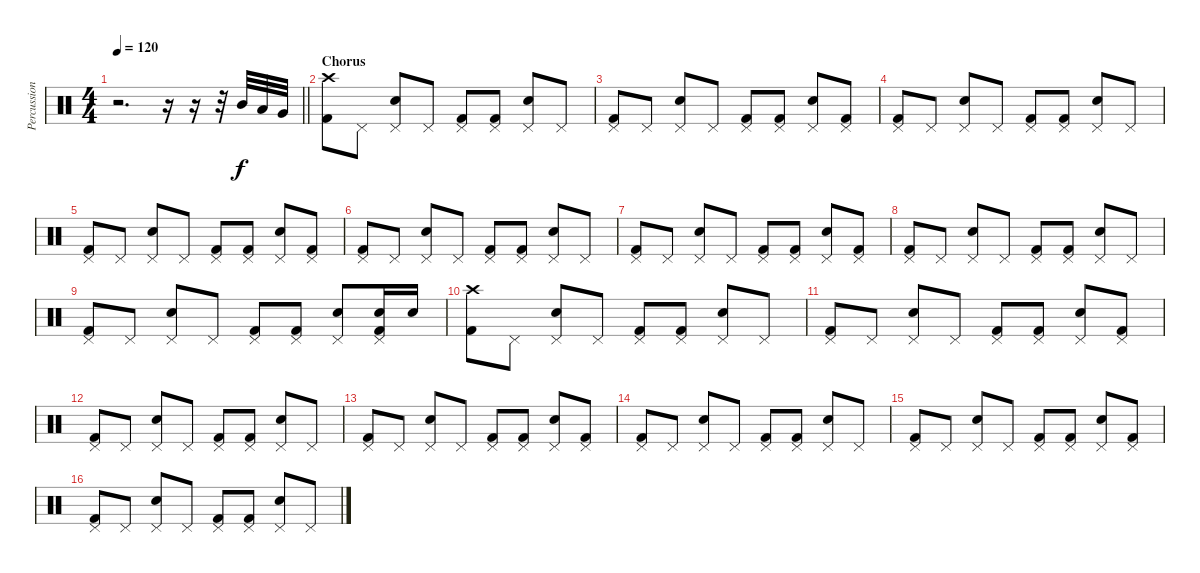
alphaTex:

\track ("Percussion" "Percussion") {instrument percussion}
\staff {score}
\articulation defaults
\ts (4 4)
\tempo 120
\clef neutral
\barLineRight lightlight
\ks c
r.2{d dy f} r.16 r.16 r.32 "Mid Tom (hit)".32 "Low Tom (hit)".32 "Very Low Tom (hit)".32 |
\section ("" "Chorus")
("Crash high (hit)" "Kick (hit) 2").8 "Pedal Hi-Hat (hit)".8 ("Pedal Hi-Hat (hit)" "Snare (hit) 2").8 "Pedal Hi-Hat (hit)".8 ("Pedal Hi-Hat (hit)" "Kick (hit) 2").8 ("Pedal Hi-Hat (hit)" "Kick (hit) 2").8 ("Pedal Hi-Hat (hit)" "Snare (hit) 2").8 "Pedal Hi-Hat (hit)".8 |
("Pedal Hi-Hat (hit)" "Kick (hit) 2").8 "Pedal Hi-Hat (hit)".8 ("Pedal Hi-Hat (hit)" "Snare (hit) 2").8 "Pedal Hi-Hat (hit)".8 ("Pedal Hi-Hat (hit)" "Kick (hit) 2").8 ("Pedal Hi-Hat (hit)" "Kick (hit) 2").8 ("Pedal Hi-Hat (hit)" "Snare (hit) 2").8 ("Pedal Hi-Hat (hit)" "Kick (hit) 2").8 |
("Pedal Hi-Hat (hit)" "Kick (hit) 2").8 "Pedal Hi-Hat (hit)".8 ("Pedal Hi-Hat (hit)" "Snare (hit) 2").8 "Pedal Hi-Hat (hit)".8 ("Pedal Hi-Hat (hit)" "Kick (hit) 2").8 ("Pedal Hi-Hat (hit)" "Kick (hit) 2").8 ("Pedal Hi-Hat (hit)" "Snare (hit) 2").8 "Pedal Hi-Hat (hit)".8 |
("Pedal Hi-Hat (hit)" "Kick (hit) 2").8 "Pedal Hi-Hat (hit)".8 ("Pedal Hi-Hat (hit)" "Snare (hit) 2").8 "Pedal Hi-Hat (hit)".8 ("Pedal Hi-Hat (hit)" "Kick (hit) 2").8 ("Pedal Hi-Hat (hit)" "Kick (hit) 2").8 ("Pedal Hi-Hat (hit)" "Snare (hit) 2").8 ("Pedal Hi-Hat (hit)" "Kick (hit) 2").8 |
("Pedal Hi-Hat (hit)" "Kick (hit) 2").8 "Pedal Hi-Hat (hit)".8 ("Pedal Hi-Hat (hit)" "Snare (hit) 2").8 "Pedal Hi-Hat (hit)".8 ("Pedal Hi-Hat (hit)" "Kick (hit) 2").8 ("Pedal Hi-Hat (hit)" "Kick (hit) 2").8 ("Pedal Hi-Hat (hit)" "Snare (hit) 2").8 "Pedal Hi-Hat (hit)".8 |
("Pedal Hi-Hat (hit)" "Kick (hit) 2").8 "Pedal Hi-Hat (hit)".8 ("Pedal Hi-Hat (hit)" "Snare (hit) 2").8 "Pedal Hi-Hat (hit)".8 ("Pedal Hi-Hat (hit)" "Kick (hit) 2").8 ("Pedal Hi-Hat (hit)" "Kick (hit) 2").8 ("Pedal Hi-Hat (hit)" "Snare (hit) 2").8 ("Pedal Hi-Hat (hit)" "Kick (hit) 2").8 |
("Pedal Hi-Hat (hit)" "Kick (hit) 2").8 "Pedal Hi-Hat (hit)".8 ("Pedal Hi-Hat (hit)" "Snare (hit) 2").8 "Pedal Hi-Hat (hit)".8 ("Pedal Hi-Hat (hit)" "Kick (hit) 2").8 ("Pedal Hi-Hat (hit)" "Kick (hit) 2").8 ("Pedal Hi-Hat (hit)" "Snare (hit) 2").8 "Pedal Hi-Hat (hit)".8 |
("Pedal Hi-Hat (hit)" "Kick (hit) 2").8 "Pedal Hi-Hat (hit)".8 ("Pedal Hi-Hat (hit)" "Snare (hit) 2").8 "Pedal Hi-Hat (hit)".8 ("Pedal Hi-Hat (hit)" "Kick (hit) 2").8 ("Pedal Hi-Hat (hit)" "Kick (hit) 2").8 ("Pedal Hi-Hat (hit)" "Snare (hit) 2").8 ("Pedal Hi-Hat (hit)" "Snare (hit) 2" "Kick (hit) 2").16 "Snare (hit) 2".16 |
("Crash high (hit)" "Kick (hit) 2").8 "Pedal Hi-Hat (hit)".8 ("Pedal Hi-Hat (hit)" "Snare (hit) 2").8 "Pedal Hi-Hat (hit)".8 ("Pedal Hi-Hat (hit)" "Kick (hit) 2").8 ("Pedal Hi-Hat (hit)" "Kick (hit) 2").8 ("Pedal Hi-Hat (hit)" "Snare (hit) 2").8 "Pedal Hi-Hat (hit)".8 |
("Pedal Hi-Hat (hit)" "Kick (hit) 2").8 "Pedal Hi-Hat (hit)".8 ("Pedal Hi-Hat (hit)" "Snare (hit) 2").8 "Pedal Hi-Hat (hit)".8 ("Pedal Hi-Hat (hit)" "Kick (hit) 2").8 ("Pedal Hi-Hat (hit)" "Kick (hit) 2").8 ("Pedal Hi-Hat (hit)" "Snare (hit) 2").8 ("Pedal Hi-Hat (hit)" "Kick (hit) 2").8 |
("Pedal Hi-Hat (hit)" "Kick (hit) 2").8 "Pedal Hi-Hat (hit)".8 ("Pedal Hi-Hat (hit)" "Snare (hit) 2").8 "Pedal Hi-Hat (hit)".8 ("Pedal Hi-Hat (hit)" "Kick (hit) 2").8 ("Pedal Hi-Hat (hit)" "Kick (hit) 2").8 ("Pedal Hi-Hat (hit)" "Snare (hit) 2").8 "Pedal Hi-Hat (hit)".8 |
("Pedal Hi-Hat (hit)" "Kick (hit) 2").8 "Pedal Hi-Hat (hit)".8 ("Pedal Hi-Hat (hit)" "Snare (hit) 2").8 "Pedal Hi-Hat (hit)".8 ("Pedal Hi-Hat (hit)" "Kick (hit) 2").8 ("Pedal Hi-Hat (hit)" "Kick (hit) 2").8 ("Pedal Hi-Hat (hit)" "Snare (hit) 2").8 ("Pedal Hi-Hat (hit)" "Kick (hit) 2").8 |
("Pedal Hi-Hat (hit)" "Kick (hit) 2").8 "Pedal Hi-Hat (hit)".8 ("Pedal Hi-Hat (hit)" "Snare (hit) 2").8 "Pedal Hi-Hat (hit)".8 ("Pedal Hi-Hat (hit)" "Kick (hit) 2").8 ("Pedal Hi-Hat (hit)" "Kick (hit) 2").8 ("Pedal Hi-Hat (hit)" "Snare (hit) 2").8 "Pedal Hi-Hat (hit)".8 |
("Pedal Hi-Hat (hit)" "Kick (hit) 2").8 "Pedal Hi-Hat (hit)".8 ("Pedal Hi-Hat (hit)" "Snare (hit) 2").8 "Pedal Hi-Hat (hit)".8 ("Pedal Hi-Hat (hit)" "Kick (hit) 2").8 ("Pedal Hi-Hat (hit)" "Kick (hit) 2").8 ("Pedal Hi-Hat (hit)" "Snare (hit) 2").8 ("Pedal Hi-Hat (hit)" "Kick (hit) 2").8 |
("Pedal Hi-Hat (hit)" "Kick (hit) 2").8 "Pedal Hi-Hat (hit)".8 ("Pedal Hi-Hat (hit)" "Snare (hit) 2").8 "Pedal Hi-Hat (hit)".8 ("Pedal Hi-Hat (hit)" "Kick (hit) 2").8 ("Pedal Hi-Hat (hit)" "Kick (hit) 2").8 ("Pedal Hi-Hat (hit)" "Snare (hit) 2").8 "Pedal Hi-Hat (hit)".8
